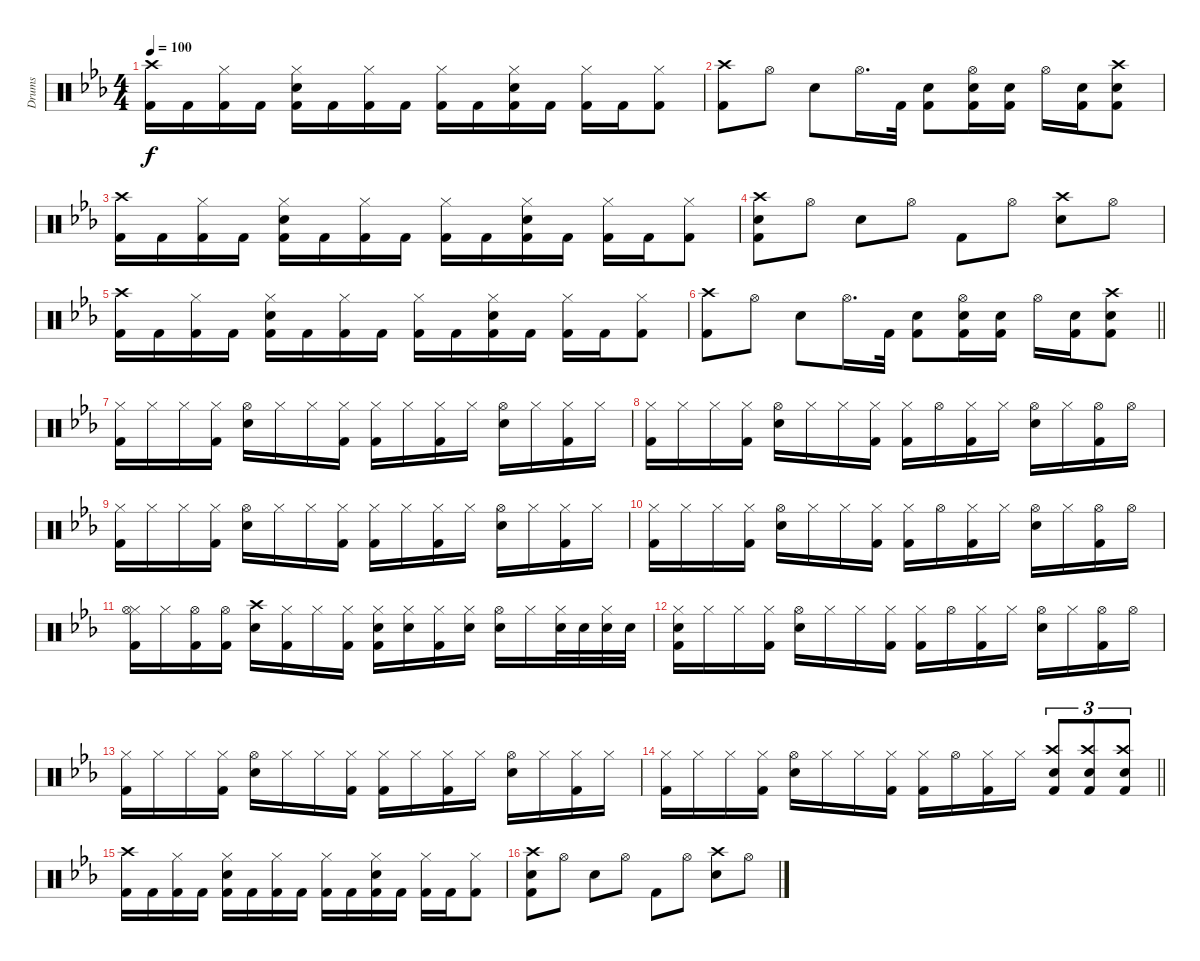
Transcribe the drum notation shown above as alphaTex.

\track ("Drums" "Drums") {instrument percussion}
\staff {score}
\articulation defaults
\ts (4 4)
\tempo 100
\clef neutral
\ks eb
("Kick (hit) 2" "Crash high (hit)").16{dy f} "Kick (hit) 2".16 ("Kick (hit) 2" "Hi-Hat (closed)").16 "Kick (hit) 2".16 ("Kick (hit) 2" "Hi-Hat (closed)" "Snare (hit) 2").16 "Kick (hit) 2".16 ("Kick (hit) 2" "Hi-Hat (closed)").16 "Kick (hit) 2".16 ("Kick (hit) 2" "Hi-Hat (closed)").16 "Kick (hit) 2".16 ("Kick (hit) 2" "Hi-Hat (closed)" "Snare (hit) 2").16 "Kick (hit) 2".16 ("Kick (hit) 2" "Hi-Hat (closed)").16 "Kick (hit) 2".16 ("Kick (hit) 2" "Hi-Hat (closed)").8 |
("Kick (hit) 2" "Crash high (hit)").8 "Hi-Hat (open)".8 "Snare (hit) 2".8 "Hi-Hat (open)".16{d} "Kick (hit) 2".32 ("Kick (hit) 2" "Snare (hit) 2").8 ("Kick (hit) 2" "Snare (hit) 2" "Hi-Hat (open)").16 ("Kick (hit) 2" "Snare (hit) 2").16 "Hi-Hat (open)".16 ("Kick (hit) 2" "Snare (hit) 2").16 ("Kick (hit) 2" "Snare (hit) 2" "Crash high (hit)").8 |
("Kick (hit) 2" "Crash high (hit)").16 "Kick (hit) 2".16 ("Kick (hit) 2" "Hi-Hat (closed)").16 "Kick (hit) 2".16 ("Kick (hit) 2" "Hi-Hat (closed)" "Snare (hit) 2").16 "Kick (hit) 2".16 ("Kick (hit) 2" "Hi-Hat (closed)").16 "Kick (hit) 2".16 ("Kick (hit) 2" "Hi-Hat (closed)").16 "Kick (hit) 2".16 ("Kick (hit) 2" "Hi-Hat (closed)" "Snare (hit) 2").16 "Kick (hit) 2".16 ("Kick (hit) 2" "Hi-Hat (closed)").16 "Kick (hit) 2".16 ("Kick (hit) 2" "Hi-Hat (closed)").8 |
("Kick (hit) 2" "Snare (hit) 2" "Crash high (hit)").8 "Hi-Hat (open)".8 "Snare (hit) 2".8 "Hi-Hat (open)".8 "Kick (hit) 2".8 "Hi-Hat (open)".8 ("Snare (hit) 2" "Crash high (hit)").8 "Hi-Hat (open)".8 |
("Kick (hit) 2" "Crash high (hit)").16 "Kick (hit) 2".16 ("Kick (hit) 2" "Hi-Hat (closed)").16 "Kick (hit) 2".16 ("Kick (hit) 2" "Hi-Hat (closed)" "Snare (hit) 2").16 "Kick (hit) 2".16 ("Kick (hit) 2" "Hi-Hat (closed)").16 "Kick (hit) 2".16 ("Kick (hit) 2" "Hi-Hat (closed)").16 "Kick (hit) 2".16 ("Kick (hit) 2" "Hi-Hat (closed)" "Snare (hit) 2").16 "Kick (hit) 2".16 ("Kick (hit) 2" "Hi-Hat (closed)").16 "Kick (hit) 2".16 ("Kick (hit) 2" "Hi-Hat (closed)").8 |
\barLineRight lightlight
("Kick (hit) 2" "Crash high (hit)").8 "Hi-Hat (open)".8 "Snare (hit) 2".8 "Hi-Hat (open)".16{d} "Kick (hit) 2".32 ("Kick (hit) 2" "Snare (hit) 2").8 ("Kick (hit) 2" "Snare (hit) 2" "Hi-Hat (open)").16 ("Kick (hit) 2" "Snare (hit) 2").16 "Hi-Hat (open)".16 ("Kick (hit) 2" "Snare (hit) 2").16 ("Kick (hit) 2" "Snare (hit) 2" "Crash high (hit)").8 |
("Hi-Hat (closed)" "Kick (hit) 2").16 "Hi-Hat (closed)".16 "Hi-Hat (closed)".16 ("Hi-Hat (closed)" "Kick (hit) 2").16 ("Hi-Hat (open)" "Snare (hit) 2").16 "Hi-Hat (closed)".16 "Hi-Hat (closed)".16 ("Hi-Hat (closed)" "Kick (hit) 2").16 ("Hi-Hat (closed)" "Kick (hit) 2").16 "Hi-Hat (closed)".16 ("Hi-Hat (closed)" "Kick (hit) 2").16 "Hi-Hat (closed)".16 ("Hi-Hat (open)" "Snare (hit) 2").16 "Hi-Hat (closed)".16 ("Hi-Hat (closed)" "Kick (hit) 2").16 "Hi-Hat (closed)".16 |
("Hi-Hat (closed)" "Kick (hit) 2").16 "Hi-Hat (closed)".16 "Hi-Hat (closed)".16 ("Hi-Hat (closed)" "Kick (hit) 2").16 ("Hi-Hat (open)" "Snare (hit) 2").16 "Hi-Hat (closed)".16 "Hi-Hat (closed)".16 ("Hi-Hat (closed)" "Kick (hit) 2").16 ("Hi-Hat (closed)" "Kick (hit) 2").16 "Hi-Hat (open)".16 ("Hi-Hat (closed)" "Kick (hit) 2").16 "Hi-Hat (closed)".16 ("Hi-Hat (open)" "Snare (hit) 2").16 "Hi-Hat (closed)".16 ("Hi-Hat (open)" "Kick (hit) 2").16 "Hi-Hat (open)".16 |
("Hi-Hat (closed)" "Kick (hit) 2").16 "Hi-Hat (closed)".16 "Hi-Hat (closed)".16 ("Hi-Hat (closed)" "Kick (hit) 2").16 ("Hi-Hat (open)" "Snare (hit) 2").16 "Hi-Hat (closed)".16 "Hi-Hat (closed)".16 ("Hi-Hat (closed)" "Kick (hit) 2").16 ("Hi-Hat (closed)" "Kick (hit) 2").16 "Hi-Hat (closed)".16 ("Hi-Hat (closed)" "Kick (hit) 2").16 "Hi-Hat (closed)".16 ("Hi-Hat (open)" "Snare (hit) 2").16 "Hi-Hat (closed)".16 ("Hi-Hat (closed)" "Kick (hit) 2").16 "Hi-Hat (closed)".16 |
("Hi-Hat (closed)" "Kick (hit) 2").16 "Hi-Hat (closed)".16 "Hi-Hat (closed)".16 ("Hi-Hat (closed)" "Kick (hit) 2").16 ("Hi-Hat (open)" "Snare (hit) 2").16 "Hi-Hat (closed)".16 "Hi-Hat (closed)".16 ("Hi-Hat (closed)" "Kick (hit) 2").16 ("Hi-Hat (closed)" "Kick (hit) 2").16 "Hi-Hat (open)".16 ("Hi-Hat (closed)" "Kick (hit) 2").16 "Hi-Hat (closed)".16 ("Hi-Hat (open)" "Snare (hit) 2").16 "Hi-Hat (closed)".16 ("Hi-Hat (open)" "Kick (hit) 2").16 "Hi-Hat (open)".16 |
("Hi-Hat (closed)" "Kick (hit) 2" "Hi-Hat (open)").16 "Hi-Hat (closed)".16 ("Kick (hit) 2" "Hi-Hat (open)").16 ("Kick (hit) 2" "Hi-Hat (open)").16 ("Crash high (hit)" "Snare (hit) 2").16 ("Hi-Hat (closed)" "Kick (hit) 2").16 "Hi-Hat (closed)".16 ("Hi-Hat (closed)" "Kick (hit) 2").16 ("Hi-Hat (closed)" "Kick (hit) 2" "Snare (hit) 2").16 ("Hi-Hat (closed)" "Snare (hit) 2").16 ("Hi-Hat (closed)" "Kick (hit) 2").16 ("Hi-Hat (closed)" "Snare (hit) 2").16 ("Hi-Hat (open)" "Snare (hit) 2").16 "Hi-Hat (closed)".16 ("Snare (hit) 2" "Hi-Hat (closed)").32 "Snare (hit) 2".32 ("Snare (hit) 2" "Hi-Hat (closed)").32 "Snare (hit) 2".32 |
("Hi-Hat (closed)" "Kick (hit) 2" "Snare (hit) 2").16 "Hi-Hat (closed)".16 "Hi-Hat (closed)".16 ("Hi-Hat (closed)" "Kick (hit) 2").16 ("Hi-Hat (open)" "Snare (hit) 2").16 "Hi-Hat (closed)".16 "Hi-Hat (closed)".16 ("Hi-Hat (closed)" "Kick (hit) 2").16 ("Hi-Hat (closed)" "Kick (hit) 2").16 "Hi-Hat (open)".16 ("Hi-Hat (closed)" "Kick (hit) 2").16 "Hi-Hat (closed)".16 ("Hi-Hat (open)" "Snare (hit) 2").16 "Hi-Hat (closed)".16 ("Hi-Hat (open)" "Kick (hit) 2").16 "Hi-Hat (open)".16 |
("Hi-Hat (closed)" "Kick (hit) 2").16 "Hi-Hat (closed)".16 "Hi-Hat (closed)".16 ("Hi-Hat (closed)" "Kick (hit) 2").16 ("Hi-Hat (open)" "Snare (hit) 2").16 "Hi-Hat (closed)".16 "Hi-Hat (closed)".16 ("Hi-Hat (closed)" "Kick (hit) 2").16 ("Hi-Hat (closed)" "Kick (hit) 2").16 "Hi-Hat (closed)".16 ("Hi-Hat (closed)" "Kick (hit) 2").16 "Hi-Hat (closed)".16 ("Hi-Hat (open)" "Snare (hit) 2").16 "Hi-Hat (closed)".16 ("Hi-Hat (closed)" "Kick (hit) 2").16 "Hi-Hat (closed)".16 |
\barLineRight lightlight
("Hi-Hat (closed)" "Kick (hit) 2").16 "Hi-Hat (closed)".16 "Hi-Hat (closed)".16 ("Hi-Hat (closed)" "Kick (hit) 2").16 ("Hi-Hat (open)" "Snare (hit) 2").16 "Hi-Hat (closed)".16 "Hi-Hat (closed)".16 ("Hi-Hat (closed)" "Kick (hit) 2").16 ("Hi-Hat (closed)" "Kick (hit) 2").16 "Hi-Hat (open)".16 ("Hi-Hat (closed)" "Kick (hit) 2").16 "Hi-Hat (closed)".16 ("Kick (hit) 2" "Snare (hit) 2" "Crash high (hit)").8{tu (3 2)} ("Kick (hit) 2" "Snare (hit) 2" "Crash high (hit)").8{tu (3 2)} ("Kick (hit) 2" "Snare (hit) 2" "Crash high (hit)").8{tu (3 2)} |
("Kick (hit) 2" "Crash high (hit)").16 "Kick (hit) 2".16 ("Kick (hit) 2" "Hi-Hat (closed)").16 "Kick (hit) 2".16 ("Kick (hit) 2" "Hi-Hat (closed)" "Snare (hit) 2").16 "Kick (hit) 2".16 ("Kick (hit) 2" "Hi-Hat (closed)").16 "Kick (hit) 2".16 ("Kick (hit) 2" "Hi-Hat (closed)").16 "Kick (hit) 2".16 ("Kick (hit) 2" "Hi-Hat (closed)" "Snare (hit) 2").16 "Kick (hit) 2".16 ("Kick (hit) 2" "Hi-Hat (closed)").16 "Kick (hit) 2".16 ("Kick (hit) 2" "Hi-Hat (closed)").8 |
("Kick (hit) 2" "Snare (hit) 2" "Crash high (hit)").8 "Hi-Hat (open)".8 "Snare (hit) 2".8 "Hi-Hat (open)".8 "Kick (hit) 2".8 "Hi-Hat (open)".8 ("Snare (hit) 2" "Crash high (hit)").8 "Hi-Hat (open)".8
